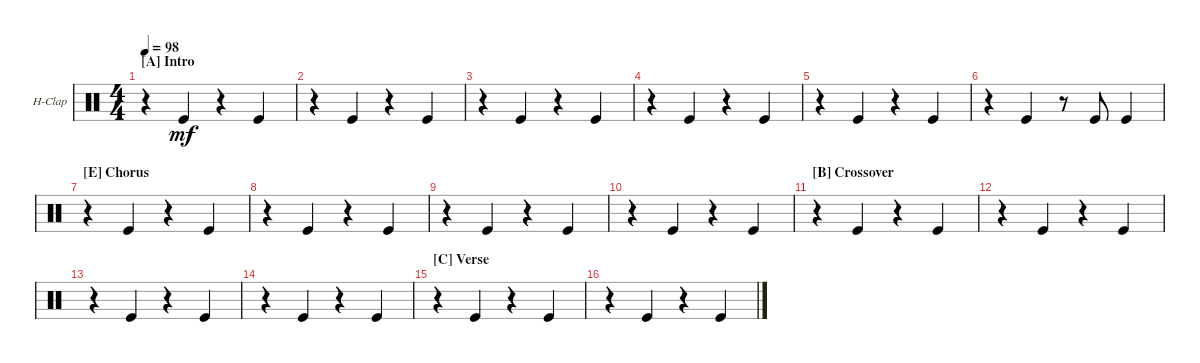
\defaultSystemsLayout 4
\bracketExtendMode groupsimilarinstruments
\firstSystemTrackNameOrientation horizontal
\otherSystemsTrackNameOrientation horizontal
\track ("Hand Clap" "H-Clap") {instrument percussion}
\staff {score}
\articulation defaults
\ts (4 4)
\section ("A" "Intro")
\tempo 98
\clef neutral
\ks c
r.4{dy mf} "Kick (hit)".4 r.4 "Kick (hit)".4 |
r.4 "Kick (hit)".4 r.4 "Kick (hit)".4 |
r.4 "Kick (hit)".4 r.4 "Kick (hit)".4 |
r.4 "Kick (hit)".4 r.4 "Kick (hit)".4 |
r.4 "Kick (hit)".4 r.4 "Kick (hit)".4 |
r.4 "Kick (hit)".4 r.8 "Kick (hit)".8 "Kick (hit)".4 |
\section ("E" "Chorus")
r.4 "Kick (hit)".4 r.4 "Kick (hit)".4 |
r.4 "Kick (hit)".4 r.4 "Kick (hit)".4 |
r.4 "Kick (hit)".4 r.4 "Kick (hit)".4 |
r.4 "Kick (hit)".4 r.4 "Kick (hit)".4 |
\section ("B" "Crossover")
r.4 "Kick (hit)".4 r.4 "Kick (hit)".4 |
r.4 "Kick (hit)".4 r.4 "Kick (hit)".4 |
r.4 "Kick (hit)".4 r.4 "Kick (hit)".4 |
r.4 "Kick (hit)".4 r.4 "Kick (hit)".4 |
\section ("C" "Verse")
r.4 "Kick (hit)".4 r.4 "Kick (hit)".4 |
r.4 "Kick (hit)".4 r.4 "Kick (hit)".4
